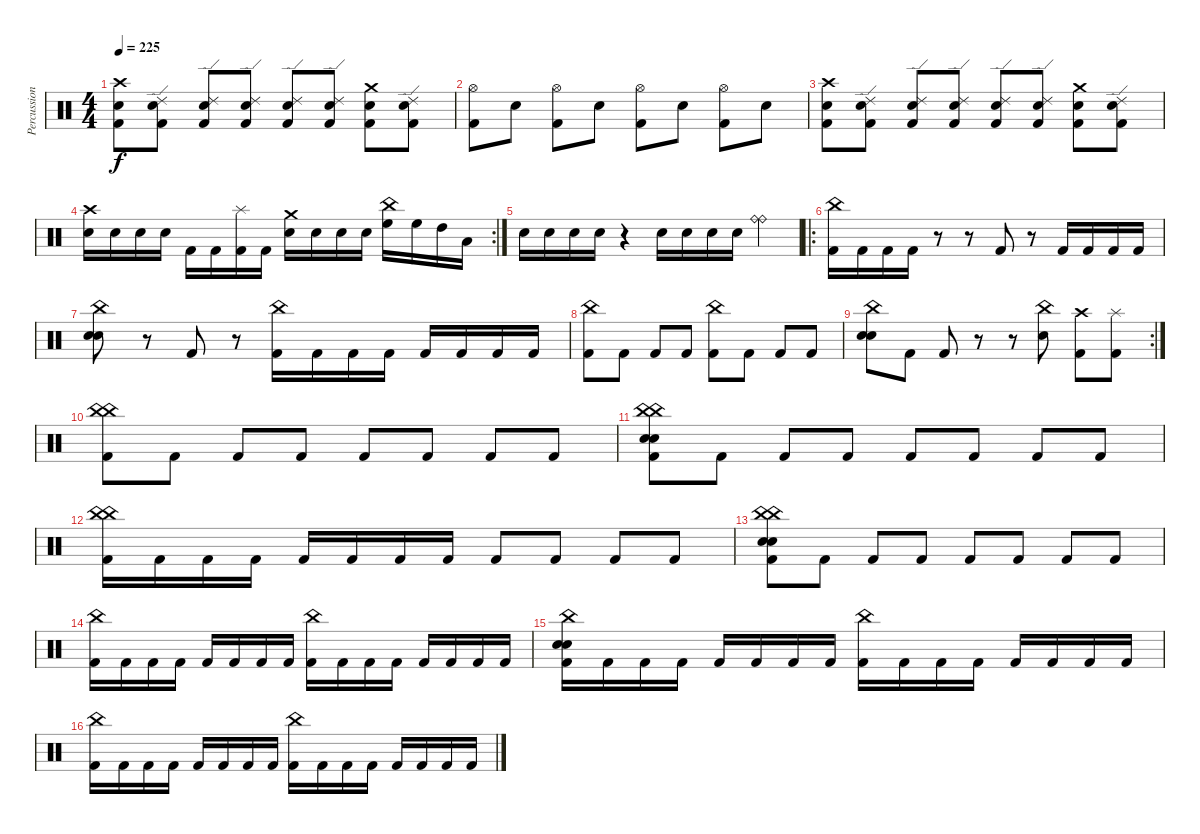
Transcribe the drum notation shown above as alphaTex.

\track ("Percussion" "Percussion") {instrument percussion}
\staff {score}
\articulation defaults
\ts (4 4)
\tempo 225
\clef neutral
\ks c
("Crash high (hit)" "Kick (hit) 2" "Electric Snare (hit)").8{dy f} ("Ride (edge) 2" "Kick (hit) 2" "Electric Snare (hit)").8 ("Ride (edge) 2" "Kick (hit) 2" "Electric Snare (hit)").8 ("Ride (edge) 2" "Kick (hit) 2" "Electric Snare (hit)").8 ("Ride (edge) 2" "Kick (hit) 2" "Electric Snare (hit)").8 ("Ride (edge) 2" "Kick (hit) 2" "Electric Snare (hit)").8 ("Crash medium (hit)" "Kick (hit) 2" "Electric Snare (hit)").8 ("Ride (edge) 2" "Kick (hit) 2" "Electric Snare (hit)").8 |
("Hi-Hat (open)" "Kick (hit) 2").8 "Electric Snare (hit)".8 ("Hi-Hat (open)" "Kick (hit) 2").8 "Electric Snare (hit)".8 ("Hi-Hat (open)" "Kick (hit) 2").8 "Electric Snare (hit)".8 ("Hi-Hat (open)" "Kick (hit) 2").8 "Electric Snare (hit)".8 |
("Crash high (hit)" "Kick (hit) 2" "Electric Snare (hit)").8 ("Ride (edge) 2" "Kick (hit) 2" "Electric Snare (hit)").8 ("Ride (edge) 2" "Kick (hit) 2" "Electric Snare (hit)").8 ("Ride (edge) 2" "Kick (hit) 2" "Electric Snare (hit)").8 ("Ride (edge) 2" "Kick (hit) 2" "Electric Snare (hit)").8 ("Ride (edge) 2" "Kick (hit) 2" "Electric Snare (hit)").8 ("Crash medium (hit)" "Kick (hit) 2" "Electric Snare (hit)").8 ("Ride (edge) 2" "Kick (hit) 2" "Electric Snare (hit)").8 |
\rc 2
("Crash high (hit)" "Electric Snare (hit)").16 "Electric Snare (hit)".16 "Electric Snare (hit)".16 "Electric Snare (hit)".16 "Kick (hit) 2".16 "Kick (hit) 2".16 ("Splash (hit)" "Kick (hit) 2").16 "Kick (hit) 2".16 ("Crash medium (hit)" "Electric Snare (hit)").16 "Electric Snare (hit)".16 "Electric Snare (hit)".16 "Electric Snare (hit)".16 ("China (hit)" "High Floor Tom (hit)").16 "High Floor Tom (hit)".16 "High Tom (hit)".16 "Low Tom (hit)".16 |
"Electric Snare (hit)".16 "Electric Snare (hit)".16 "Electric Snare (hit)".16 "Electric Snare (hit)".16 r.4 "Electric Snare (hit)".16 "Electric Snare (hit)".16 "Electric Snare (hit)".16 "Electric Snare (hit)".16 ("Ride (bell)" "Ride (bell)").4 |
\ro
("China (hit)" "Kick (hit) 2").16 "Kick (hit) 2".16 "Kick (hit) 2".16 "Kick (hit) 2".16 r.8 r.8 "Kick (hit) 2".8 r.8 "Kick (hit) 2".16 "Kick (hit) 2".16 "Kick (hit) 2".16 "Kick (hit) 2".16 |
("China (hit)" "Electric Snare (hit)" "Electric Snare (hit)").8 r.8 "Kick (hit) 2".8 r.8 ("China (hit)" "Kick (hit) 2").16 "Kick (hit) 2".16 "Kick (hit) 2".16 "Kick (hit) 2".16 "Kick (hit) 2".16 "Kick (hit) 2".16 "Kick (hit) 2".16 "Kick (hit) 2".16 |
("China (hit)" "Kick (hit) 2").8 "Kick (hit) 2".8 "Kick (hit) 2".8 "Kick (hit) 2".8 ("China (hit)" "Kick (hit) 2").8 "Kick (hit) 2".8 "Kick (hit) 2".8 "Kick (hit) 2".8 |
\rc 2
("China (hit)" "Electric Snare (hit)" "Electric Snare (hit)").8 "Kick (hit) 2".8 "Kick (hit) 2".8 r.8 r.8 ("China (hit)" "Electric Snare (hit)").8 ("Crash high (hit)" "Kick (hit) 2").8 ("Splash (hit)" "Kick (hit) 2").8 |
("China (hit)" "Kick (hit) 2" "China (hit)").8 "Kick (hit) 2".8 "Kick (hit) 2".8 "Kick (hit) 2".8 "Kick (hit) 2".8 "Kick (hit) 2".8 "Kick (hit) 2".8 "Kick (hit) 2".8 |
("China (hit)" "Kick (hit) 2" "Electric Snare (hit)" "Electric Snare (hit)" "China (hit)").8 "Kick (hit) 2".8 "Kick (hit) 2".8 "Kick (hit) 2".8 "Kick (hit) 2".8 "Kick (hit) 2".8 "Kick (hit) 2".8 "Kick (hit) 2".8 |
("China (hit)" "Kick (hit) 2" "China (hit)").16 "Kick (hit) 2".16 "Kick (hit) 2".16 "Kick (hit) 2".16 "Kick (hit) 2".16 "Kick (hit) 2".16 "Kick (hit) 2".16 "Kick (hit) 2".16 "Kick (hit) 2".8 "Kick (hit) 2".8 "Kick (hit) 2".8 "Kick (hit) 2".8 |
("China (hit)" "Kick (hit) 2" "Electric Snare (hit)" "Electric Snare (hit)" "China (hit)").8 "Kick (hit) 2".8 "Kick (hit) 2".8 "Kick (hit) 2".8 "Kick (hit) 2".8 "Kick (hit) 2".8 "Kick (hit) 2".8 "Kick (hit) 2".8 |
("China (hit)" "Kick (hit) 2").16 "Kick (hit) 2".16 "Kick (hit) 2".16 "Kick (hit) 2".16 "Kick (hit) 2".16 "Kick (hit) 2".16 "Kick (hit) 2".16 "Kick (hit) 2".16 ("China (hit)" "Kick (hit) 2").16 "Kick (hit) 2".16 "Kick (hit) 2".16 "Kick (hit) 2".16 "Kick (hit) 2".16 "Kick (hit) 2".16 "Kick (hit) 2".16 "Kick (hit) 2".16 |
("China (hit)" "Kick (hit) 2" "Electric Snare (hit)" "Electric Snare (hit)").16 "Kick (hit) 2".16 "Kick (hit) 2".16 "Kick (hit) 2".16 "Kick (hit) 2".16 "Kick (hit) 2".16 "Kick (hit) 2".16 "Kick (hit) 2".16 ("China (hit)" "Kick (hit) 2").16 "Kick (hit) 2".16 "Kick (hit) 2".16 "Kick (hit) 2".16 "Kick (hit) 2".16 "Kick (hit) 2".16 "Kick (hit) 2".16 "Kick (hit) 2".16 |
("China (hit)" "Kick (hit) 2").16 "Kick (hit) 2".16 "Kick (hit) 2".16 "Kick (hit) 2".16 "Kick (hit) 2".16 "Kick (hit) 2".16 "Kick (hit) 2".16 "Kick (hit) 2".16 ("China (hit)" "Kick (hit) 2").16 "Kick (hit) 2".16 "Kick (hit) 2".16 "Kick (hit) 2".16 "Kick (hit) 2".16 "Kick (hit) 2".16 "Kick (hit) 2".16 "Kick (hit) 2".16
